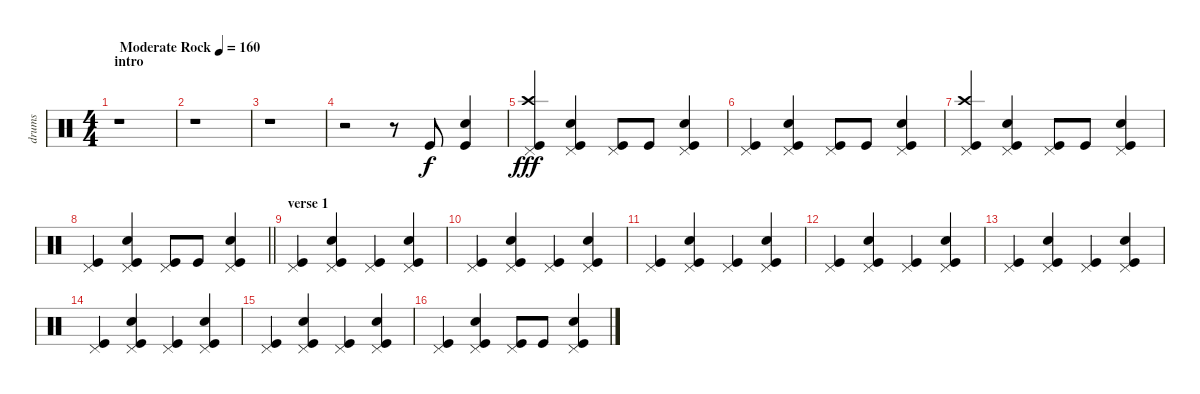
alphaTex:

\track ("drums" "drums") {instrument percussion}
\staff {score}
\articulation defaults
\ts (4 4)
\section ("" "intro")
\tempo (160 "Moderate Rock")
\clef neutral
\ks c
r.1{dy f} |
r.1 |
r.1 |
r.2 r.8 "Kick (hit)".8 ("Electric Snare (hit)" "Kick (hit)").4 |
("Crash high (hit)" "Pedal Hi-Hat (hit)" "Kick (hit)").4{dy fff} ("Snare (hit) 2" "Pedal Hi-Hat (hit)" "Kick (hit)").4 ("Pedal Hi-Hat (hit)" "Kick (hit)").8 "Kick (hit)".8 ("Snare (hit) 2" "Pedal Hi-Hat (hit)" "Kick (hit)").4 |
("Pedal Hi-Hat (hit)" "Kick (hit)").4 ("Snare (hit) 2" "Pedal Hi-Hat (hit)" "Kick (hit)").4 ("Pedal Hi-Hat (hit)" "Kick (hit)").8 "Kick (hit)".8 ("Snare (hit) 2" "Pedal Hi-Hat (hit)" "Kick (hit)").4 |
("Crash high (hit)" "Pedal Hi-Hat (hit)" "Kick (hit)").4 ("Snare (hit) 2" "Pedal Hi-Hat (hit)" "Kick (hit)").4 ("Pedal Hi-Hat (hit)" "Kick (hit)").8 "Kick (hit)".8 ("Snare (hit) 2" "Pedal Hi-Hat (hit)" "Kick (hit)").4 |
\barLineRight lightlight
("Pedal Hi-Hat (hit)" "Kick (hit)").4 ("Snare (hit) 2" "Pedal Hi-Hat (hit)" "Kick (hit)").4 ("Pedal Hi-Hat (hit)" "Kick (hit)").8 "Kick (hit)".8 ("Snare (hit) 2" "Pedal Hi-Hat (hit)" "Kick (hit)").4 |
\section ("" "verse 1")
("Pedal Hi-Hat (hit)" "Kick (hit)").4 ("Snare (hit) 2" "Pedal Hi-Hat (hit)" "Kick (hit)").4 ("Pedal Hi-Hat (hit)" "Kick (hit)").4 ("Snare (hit) 2" "Pedal Hi-Hat (hit)" "Kick (hit)").4 |
("Pedal Hi-Hat (hit)" "Kick (hit)").4 ("Snare (hit) 2" "Pedal Hi-Hat (hit)" "Kick (hit)").4 ("Pedal Hi-Hat (hit)" "Kick (hit)").4 ("Snare (hit) 2" "Pedal Hi-Hat (hit)" "Kick (hit)").4 |
("Pedal Hi-Hat (hit)" "Kick (hit)").4 ("Snare (hit) 2" "Pedal Hi-Hat (hit)" "Kick (hit)").4 ("Pedal Hi-Hat (hit)" "Kick (hit)").4 ("Snare (hit) 2" "Pedal Hi-Hat (hit)" "Kick (hit)").4 |
("Pedal Hi-Hat (hit)" "Kick (hit)").4 ("Snare (hit) 2" "Pedal Hi-Hat (hit)" "Kick (hit)").4 ("Pedal Hi-Hat (hit)" "Kick (hit)").4 ("Snare (hit) 2" "Pedal Hi-Hat (hit)" "Kick (hit)").4 |
("Pedal Hi-Hat (hit)" "Kick (hit)").4 ("Snare (hit) 2" "Pedal Hi-Hat (hit)" "Kick (hit)").4 ("Pedal Hi-Hat (hit)" "Kick (hit)").4 ("Snare (hit) 2" "Pedal Hi-Hat (hit)" "Kick (hit)").4 |
("Pedal Hi-Hat (hit)" "Kick (hit)").4 ("Snare (hit) 2" "Pedal Hi-Hat (hit)" "Kick (hit)").4 ("Pedal Hi-Hat (hit)" "Kick (hit)").4 ("Snare (hit) 2" "Pedal Hi-Hat (hit)" "Kick (hit)").4 |
("Pedal Hi-Hat (hit)" "Kick (hit)").4 ("Snare (hit) 2" "Pedal Hi-Hat (hit)" "Kick (hit)").4 ("Pedal Hi-Hat (hit)" "Kick (hit)").4 ("Snare (hit) 2" "Pedal Hi-Hat (hit)" "Kick (hit)").4 |
("Pedal Hi-Hat (hit)" "Kick (hit)").4 ("Snare (hit) 2" "Pedal Hi-Hat (hit)" "Kick (hit)").4 ("Pedal Hi-Hat (hit)" "Kick (hit)").8 "Kick (hit)".8 ("Snare (hit) 2" "Pedal Hi-Hat (hit)" "Kick (hit)").4
